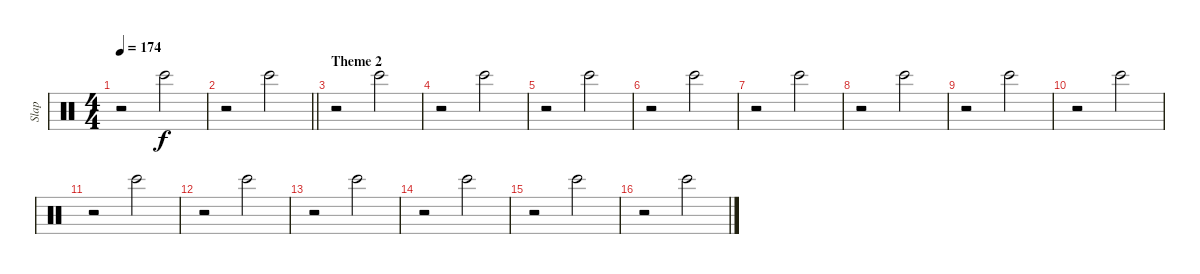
\track ("Slap" "Slap") {instrument percussion}
\staff {score}
\articulation defaults
\ts (4 4)
\tempo 174
\clef neutral
\ks c
r.2{dy f} "Bongo High (hit)".2 |
\barLineRight lightlight
r.2 "Bongo High (hit)".2 |
\section ("" "Theme 2")
r.2 "Bongo High (hit)".2 |
r.2 "Bongo High (hit)".2 |
r.2 "Bongo High (hit)".2 |
r.2 "Bongo High (hit)".2 |
r.2 "Bongo High (hit)".2 |
r.2 "Bongo High (hit)".2 |
r.2 "Bongo High (hit)".2 |
r.2 "Bongo High (hit)".2 |
r.2 "Bongo High (hit)".2 |
r.2 "Bongo High (hit)".2 |
r.2 "Bongo High (hit)".2 |
r.2 "Bongo High (hit)".2 |
r.2 "Bongo High (hit)".2 |
r.2 "Bongo High (hit)".2
